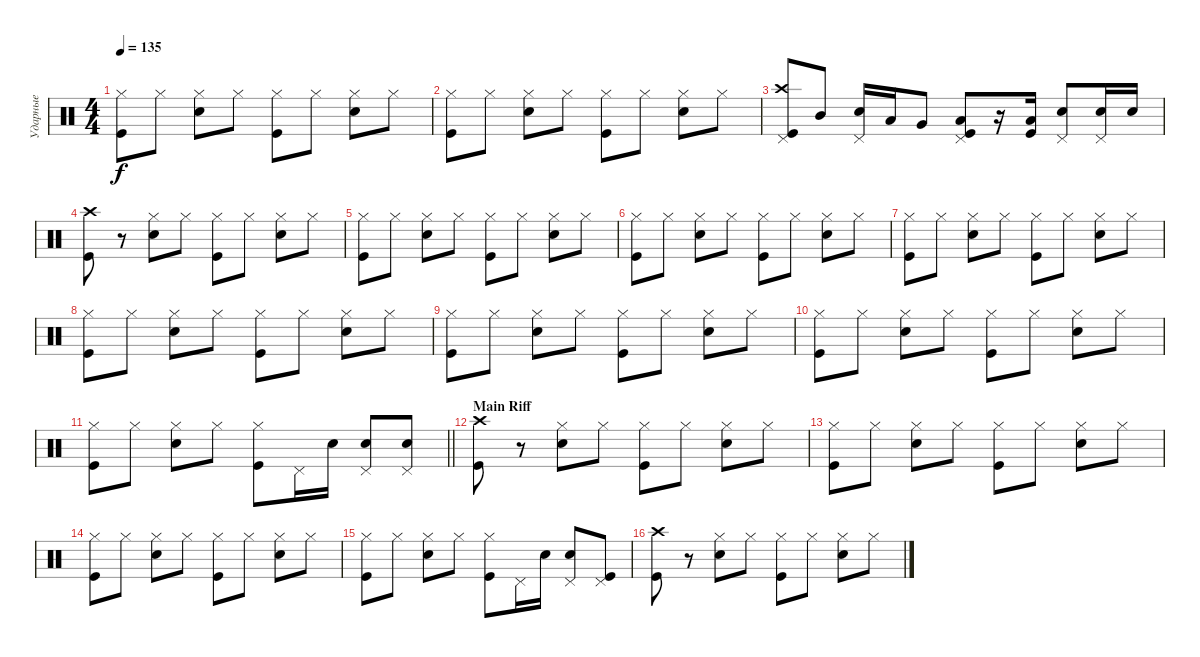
\track ("Ударные" "Ударные") {instrument percussion}
\staff {score}
\articulation defaults
\ts (4 4)
\tempo 135
\clef neutral
\ks c
("Hi-Hat (closed)" "Kick (hit)").8{dy f} "Hi-Hat (closed)".8 ("Hi-Hat (closed)" "Snare (hit) 2").8 "Hi-Hat (closed)".8 ("Hi-Hat (closed)" "Kick (hit)").8 "Hi-Hat (closed)".8 ("Hi-Hat (closed)" "Snare (hit) 2").8 "Hi-Hat (closed)".8 |
("Hi-Hat (closed)" "Kick (hit)").8 "Hi-Hat (closed)".8 ("Hi-Hat (closed)" "Snare (hit) 2").8 "Hi-Hat (closed)".8 ("Hi-Hat (closed)" "Kick (hit)").8 "Hi-Hat (closed)".8 ("Hi-Hat (closed)" "Snare (hit) 2").8 "Hi-Hat (closed)".8 |
("Kick (hit)" "Crash high (hit)" "Pedal Hi-Hat (hit)").8 "Mid Tom (hit)".8 ("Pedal Hi-Hat (hit)" "Snare (hit) 2").16 "Low Tom (hit)".16 "Very Low Tom (hit)".8 ("Low Floor Tom (hit)" "Kick (hit)" "Pedal Hi-Hat (hit)").8 r.16 ("Low Floor Tom (hit)" "Kick (hit)").16 ("Snare (hit) 2" "Pedal Hi-Hat (hit)").8 ("Snare (hit) 2" "Pedal Hi-Hat (hit)").16 "Snare (hit) 2".16 |
("Crash high (hit)" "Kick (hit)").8 r.8 ("Hi-Hat (closed)" "Snare (hit) 2").8 "Hi-Hat (closed)".8 ("Hi-Hat (closed)" "Kick (hit)").8 "Hi-Hat (closed)".8 ("Hi-Hat (closed)" "Snare (hit) 2").8 "Hi-Hat (closed)".8 |
("Hi-Hat (closed)" "Kick (hit)").8 "Hi-Hat (closed)".8 ("Hi-Hat (closed)" "Snare (hit) 2").8 "Hi-Hat (closed)".8 ("Hi-Hat (closed)" "Kick (hit)").8 "Hi-Hat (closed)".8 ("Hi-Hat (closed)" "Snare (hit) 2").8 "Hi-Hat (closed)".8 |
("Hi-Hat (closed)" "Kick (hit)").8 "Hi-Hat (closed)".8 ("Hi-Hat (closed)" "Snare (hit) 2").8 "Hi-Hat (closed)".8 ("Hi-Hat (closed)" "Kick (hit)").8 "Hi-Hat (closed)".8 ("Hi-Hat (closed)" "Snare (hit) 2").8 "Hi-Hat (closed)".8 |
("Hi-Hat (closed)" "Kick (hit)").8 "Hi-Hat (closed)".8 ("Hi-Hat (closed)" "Snare (hit) 2").8 "Hi-Hat (closed)".8 ("Hi-Hat (closed)" "Kick (hit)").8 "Hi-Hat (closed)".8 ("Hi-Hat (closed)" "Snare (hit) 2").8 "Hi-Hat (closed)".8 |
("Hi-Hat (closed)" "Kick (hit)").8 "Hi-Hat (closed)".8 ("Hi-Hat (closed)" "Snare (hit) 2").8 "Hi-Hat (closed)".8 ("Hi-Hat (closed)" "Kick (hit)").8 "Hi-Hat (closed)".8 ("Hi-Hat (closed)" "Snare (hit) 2").8 "Hi-Hat (closed)".8 |
("Hi-Hat (closed)" "Kick (hit)").8 "Hi-Hat (closed)".8 ("Hi-Hat (closed)" "Snare (hit) 2").8 "Hi-Hat (closed)".8 ("Hi-Hat (closed)" "Kick (hit)").8 "Hi-Hat (closed)".8 ("Hi-Hat (closed)" "Snare (hit) 2").8 "Hi-Hat (closed)".8 |
("Hi-Hat (closed)" "Kick (hit)").8 "Hi-Hat (closed)".8 ("Hi-Hat (closed)" "Snare (hit) 2").8 "Hi-Hat (closed)".8 ("Hi-Hat (closed)" "Kick (hit)").8 "Hi-Hat (closed)".8 ("Hi-Hat (closed)" "Snare (hit) 2").8 "Hi-Hat (closed)".8 |
\barLineRight lightlight
("Hi-Hat (closed)" "Kick (hit)").8 "Hi-Hat (closed)".8 ("Hi-Hat (closed)" "Snare (hit) 2").8 "Hi-Hat (closed)".8 ("Hi-Hat (closed)" "Kick (hit)").8 "Pedal Hi-Hat (hit)".16 "Snare (hit) 2".16 ("Pedal Hi-Hat (hit)" "Snare (hit) 2").8 ("Pedal Hi-Hat (hit)" "Snare (hit) 2").8 |
\section ("" "Main Riff")
("Crash high (hit)" "Kick (hit)").8 r.8 ("Hi-Hat (closed)" "Snare (hit) 2").8 "Hi-Hat (closed)".8 ("Hi-Hat (closed)" "Kick (hit)").8 "Hi-Hat (closed)".8 ("Hi-Hat (closed)" "Snare (hit) 2").8 "Hi-Hat (closed)".8 |
("Hi-Hat (closed)" "Kick (hit)").8 "Hi-Hat (closed)".8 ("Hi-Hat (closed)" "Snare (hit) 2").8 "Hi-Hat (closed)".8 ("Hi-Hat (closed)" "Kick (hit)").8 "Hi-Hat (closed)".8 ("Hi-Hat (closed)" "Snare (hit) 2").8 "Hi-Hat (closed)".8 |
("Hi-Hat (closed)" "Kick (hit)").8 "Hi-Hat (closed)".8 ("Hi-Hat (closed)" "Snare (hit) 2").8 "Hi-Hat (closed)".8 ("Hi-Hat (closed)" "Kick (hit)").8 "Hi-Hat (closed)".8 ("Hi-Hat (closed)" "Snare (hit) 2").8 "Hi-Hat (closed)".8 |
("Hi-Hat (closed)" "Kick (hit)").8 "Hi-Hat (closed)".8 ("Hi-Hat (closed)" "Snare (hit) 2").8 "Hi-Hat (closed)".8 ("Hi-Hat (closed)" "Kick (hit)").8 "Pedal Hi-Hat (hit)".16 "Snare (hit) 2".16 ("Pedal Hi-Hat (hit)" "Snare (hit) 2").8 ("Pedal Hi-Hat (hit)" "Kick (hit)").8 |
("Crash high (hit)" "Kick (hit)").8 r.8 ("Hi-Hat (closed)" "Snare (hit) 2").8 "Hi-Hat (closed)".8 ("Hi-Hat (closed)" "Kick (hit)").8 "Hi-Hat (closed)".8 ("Hi-Hat (closed)" "Snare (hit) 2").8 "Hi-Hat (closed)".8
